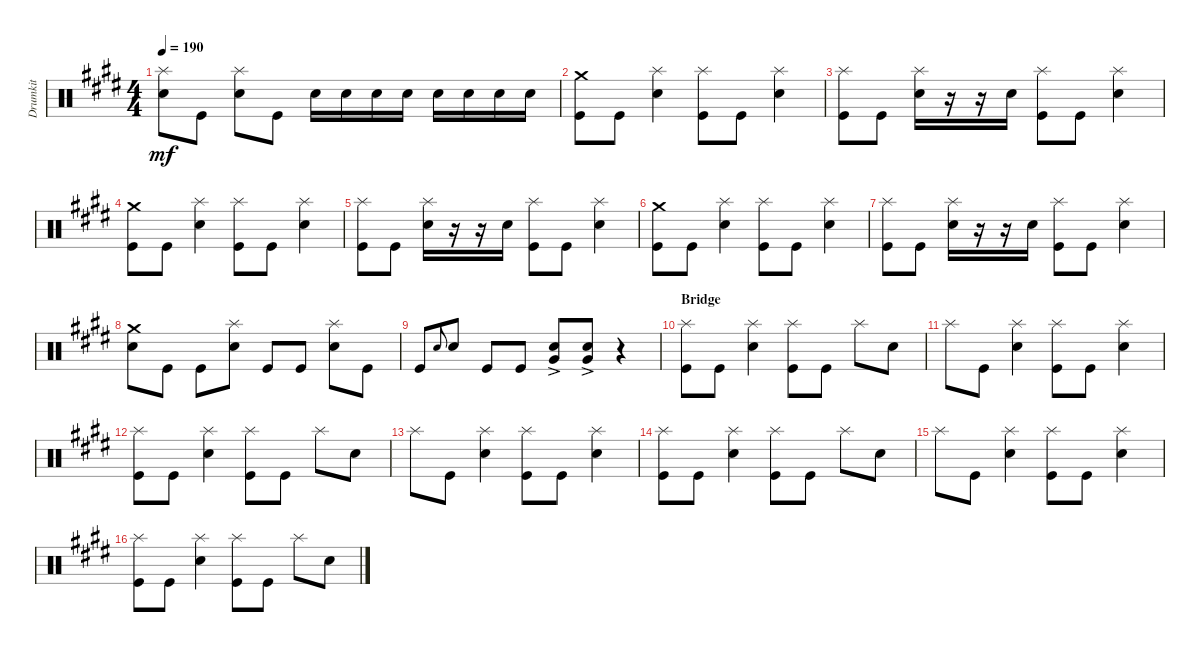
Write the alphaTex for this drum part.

\track ("Drumkit" "Drumkit") {instrument percussion}
\staff {score}
\articulation defaults
\ts (4 4)
\tempo 190
\clef neutral
\ks e
("Snare (hit) 2" "Splash (hit)").8{dy mf} "Kick (hit)".8 ("Snare (hit) 2" "Splash (hit)").8 "Kick (hit)".8 "Snare (hit) 2".16 "Snare (hit) 2".16 "Snare (hit) 2".16 "Snare (hit) 2".16 "Snare (hit) 2".16 "Snare (hit) 2".16 "Snare (hit) 2".16 "Snare (hit) 2".16 |
("Crash medium (hit)" "Kick (hit)").8 "Kick (hit)".8 ("Splash (hit)" "Snare (hit) 2").4 ("Kick (hit)" "Splash (hit)").8 "Kick (hit)".8 ("Snare (hit) 2" "Splash (hit)").4 |
("Kick (hit)" "Splash (hit)").8 "Kick (hit)".8 ("Splash (hit)" "Snare (hit) 2").16 r.16 r.16 "Snare (hit) 2".16 ("Splash (hit)" "Kick (hit)").8 "Kick (hit)".8 ("Splash (hit)" "Snare (hit) 2").4 |
("Crash medium (hit)" "Kick (hit)").8 "Kick (hit)".8 ("Splash (hit)" "Snare (hit) 2").4 ("Kick (hit)" "Splash (hit)").8 "Kick (hit)".8 ("Snare (hit) 2" "Splash (hit)").4 |
("Kick (hit)" "Splash (hit)").8 "Kick (hit)".8 ("Splash (hit)" "Snare (hit) 2").16 r.16 r.16 "Snare (hit) 2".16 ("Splash (hit)" "Kick (hit)").8 "Kick (hit)".8 ("Splash (hit)" "Snare (hit) 2").4 |
("Crash medium (hit)" "Kick (hit)").8 "Kick (hit)".8 ("Splash (hit)" "Snare (hit) 2").4 ("Kick (hit)" "Splash (hit)").8 "Kick (hit)".8 ("Snare (hit) 2" "Splash (hit)").4 |
("Kick (hit)" "Splash (hit)").8 "Kick (hit)".8 ("Splash (hit)" "Snare (hit) 2").16 r.16 r.16 "Snare (hit) 2".16 ("Splash (hit)" "Kick (hit)").8 "Kick (hit)".8 ("Splash (hit)" "Snare (hit) 2").4 |
("Crash medium (hit)" "Snare (hit) 2").8 "Kick (hit)".8 "Kick (hit)".8 ("Splash (hit)" "Snare (hit) 2").8 "Kick (hit)".8 "Kick (hit)".8 ("Splash (hit)" "Snare (hit) 2").8 "Kick (hit)".8 |
"Kick (hit)".8 "Snare (hit)".8{gr onbeat} "Snare (hit) 2".8 "Kick (hit)".8 "Kick (hit)".8 ("Snare (hit) 2"{ac} "Very Low Tom (hit)"{ac}).8 ("Very Low Tom (hit)" "Snare (hit) 2"{ac}).8 r.4 |
\section ("" "Bridge")
("Splash (hit)" "Kick (hit)").8 "Kick (hit)".8 ("Splash (hit)" "Snare (hit) 2").4 ("Splash (hit)" "Kick (hit)").8 "Kick (hit)".8 "Splash (hit)".8 "Snare (hit) 2".8 |
"Splash (hit)".8 "Kick (hit)".8 ("Splash (hit)" "Snare (hit) 2").4 ("Splash (hit)" "Kick (hit)").8 "Kick (hit)".8 ("Snare (hit) 2" "Splash (hit)").4 |
("Splash (hit)" "Kick (hit)").8 "Kick (hit)".8 ("Splash (hit)" "Snare (hit) 2").4 ("Splash (hit)" "Kick (hit)").8 "Kick (hit)".8 "Splash (hit)".8 "Snare (hit) 2".8 |
"Splash (hit)".8 "Kick (hit)".8 ("Splash (hit)" "Snare (hit) 2").4 ("Splash (hit)" "Kick (hit)").8 "Kick (hit)".8 ("Snare (hit) 2" "Splash (hit)").4 |
("Splash (hit)" "Kick (hit)").8 "Kick (hit)".8 ("Splash (hit)" "Snare (hit) 2").4 ("Splash (hit)" "Kick (hit)").8 "Kick (hit)".8 "Splash (hit)".8 "Snare (hit) 2".8 |
"Splash (hit)".8 "Kick (hit)".8 ("Splash (hit)" "Snare (hit) 2").4 ("Splash (hit)" "Kick (hit)").8 "Kick (hit)".8 ("Snare (hit) 2" "Splash (hit)").4 |
("Splash (hit)" "Kick (hit)").8 "Kick (hit)".8 ("Splash (hit)" "Snare (hit) 2").4 ("Splash (hit)" "Kick (hit)").8 "Kick (hit)".8 "Splash (hit)".8 "Snare (hit) 2".8
